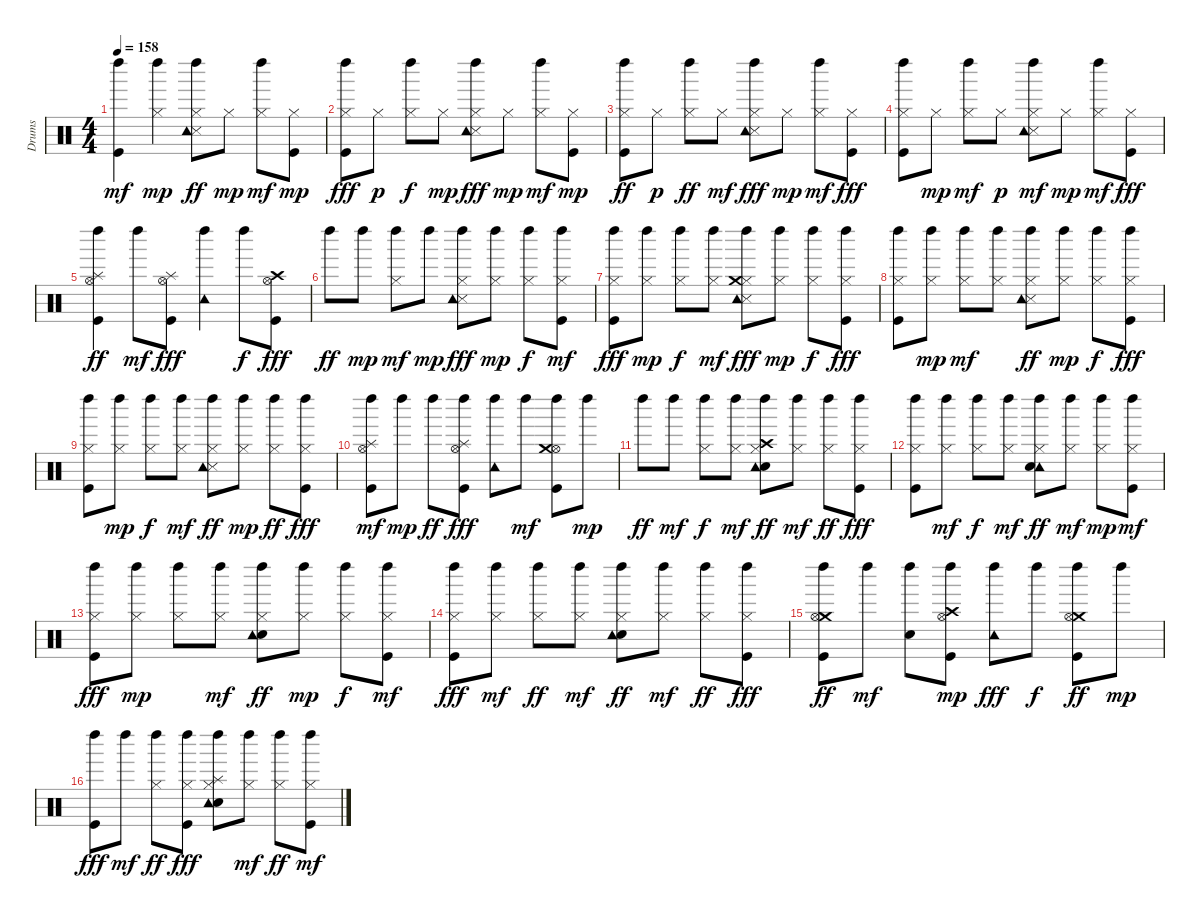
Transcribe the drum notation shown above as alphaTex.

\track ("Drums" "Drums") {instrument percussion}
\staff {score}
\articulation defaults
\ts (4 4)
\tempo 158
\clef neutral
\ks c
("Kick (hit)" "Left Maraca (hit)").4{dy mf} ("Left Maraca (hit)" "Hi-Hat (closed)").4{dy mp} ("Snare (side stick) 3" "Tambourine (hit)" "Left Maraca (hit)" "Hi-Hat (closed)").8{dy ff} "Hi-Hat (closed)".8{dy mp} ("Hi-Hat (closed)" "Left Maraca (hit)").8{dy mf} ("Kick (hit)" "Hi-Hat (closed)").8{dy mp} |
("Kick (hit)" "Hi-Hat (closed)" "Left Maraca (hit)").8{dy fff} "Hi-Hat (closed)".8{dy p} ("Hi-Hat (closed)" "Left Maraca (hit)").8{dy f} "Hi-Hat (closed)".8{dy mp} ("Snare (side stick) 3" "Left Maraca (hit)" "Hi-Hat (closed)" "Tambourine (hit)").8{dy fff} "Hi-Hat (closed)".8{dy mp} ("Hi-Hat (closed)" "Left Maraca (hit)").8{dy mf} ("Kick (hit)" "Hi-Hat (closed)").8{dy mp} |
("Kick (hit)" "Left Maraca (hit)" "Hi-Hat (closed)").8{dy ff} "Hi-Hat (closed)".8{dy p} ("Left Maraca (hit)" "Hi-Hat (closed)").8{dy ff} "Hi-Hat (closed)".8{dy mf} ("Snare (side stick) 3" "Hi-Hat (closed)" "Tambourine (hit)" "Left Maraca (hit)").8{dy fff} "Hi-Hat (closed)".8{dy mp} ("Left Maraca (hit)" "Hi-Hat (closed)").8{dy mf} ("Hi-Hat (closed)" "Kick (hit)").8{dy fff} |
("Hi-Hat (closed)" "Left Maraca (hit)" "Kick (hit)").8 "Hi-Hat (closed)".8{dy mp} ("Left Maraca (hit)" "Hi-Hat (closed)").8{dy mf} "Hi-Hat (closed)".8{dy p} ("Hi-Hat (closed)" "Snare (side stick) 3" "Tambourine (hit)" "Left Maraca (hit)").8{dy mf} "Hi-Hat (closed)".8{dy mp} ("Hi-Hat (closed)" "Left Maraca (hit)").8{dy mf} ("Hi-Hat (closed)" "Kick (hit)").8{dy fff} |
("Hi-Hat (open)" "Left Maraca (hit)" "Kick (hit)" "Splash (hit)").4{dy ff} "Left Maraca (hit)".8{dy mf} ("Kick (hit)" "Hi-Hat (open)" "Splash (hit)").8{dy fff} ("Left Maraca (hit)" "Tambourine (hit)").4 "Left Maraca (hit)".8{dy f} ("Hi-Hat (open)" "Crash high (hit)" "Kick (hit)").8{dy fff} |
"Left Maraca (hit)".8{dy ff} "Left Maraca (hit)".8{dy mp} ("Left Maraca (hit)" "Hi-Hat (closed)").8{dy mf} "Left Maraca (hit)".8{dy mp} ("Snare (side stick) 3" "Hi-Hat (closed)" "Left Maraca (hit)" "Tambourine (hit)").8{dy fff} ("Hi-Hat (closed)" "Left Maraca (hit)").8{dy mp} ("Hi-Hat (closed)" "Left Maraca (hit)").8{dy f} ("Kick (hit)" "Hi-Hat (closed)" "Left Maraca (hit)").8{dy mf} |
("Kick (hit)" "Hi-Hat (closed)" "Left Maraca (hit)").8{dy fff} ("Hi-Hat (closed)" "Left Maraca (hit)").8{dy mp} ("Hi-Hat (closed)" "Left Maraca (hit)").8{dy f} ("Hi-Hat (closed)" "Left Maraca (hit)").8{dy mf} ("Hi-Hat (closed)" "Crash medium (hit)" "Left Maraca (hit)" "Snare (side stick) 3" "Tambourine (hit)").8{dy fff} ("Hi-Hat (closed)" "Left Maraca (hit)").8{dy mp} ("Hi-Hat (closed)" "Left Maraca (hit)").8{dy f} ("Hi-Hat (closed)" "Left Maraca (hit)" "Kick (hit)").8{dy fff} |
("Hi-Hat (closed)" "Kick (hit)" "Left Maraca (hit)").8 ("Hi-Hat (closed)" "Left Maraca (hit)").8{dy mp} ("Hi-Hat (closed)" "Left Maraca (hit)").8{dy mf} ("Hi-Hat (closed)" "Left Maraca (hit)").8 ("Hi-Hat (closed)" "Snare (side stick) 3" "Tambourine (hit)" "Left Maraca (hit)").8{dy ff} ("Hi-Hat (closed)" "Left Maraca (hit)").8{dy mp} ("Hi-Hat (closed)" "Left Maraca (hit)").8{dy f} ("Hi-Hat (closed)" "Left Maraca (hit)" "Kick (hit)").8{dy fff} |
("Hi-Hat (closed)" "Left Maraca (hit)" "Kick (hit)").8 ("Hi-Hat (closed)" "Left Maraca (hit)").8{dy mp} ("Hi-Hat (closed)" "Left Maraca (hit)").8{dy f} ("Hi-Hat (closed)" "Left Maraca (hit)").8{dy mf} ("Hi-Hat (closed)" "Snare (side stick) 3" "Tambourine (hit)" "Left Maraca (hit)").8{dy ff} ("Hi-Hat (closed)" "Left Maraca (hit)").8{dy mp} ("Hi-Hat (closed)" "Left Maraca (hit)").8{dy ff} ("Hi-Hat (closed)" "Left Maraca (hit)" "Kick (hit)").8{dy fff} |
("Left Maraca (hit)" "Kick (hit)" "Hi-Hat (open)" "Splash (hit)").8{dy mf} "Left Maraca (hit)".8{dy mp} "Left Maraca (hit)".8{dy ff} ("Left Maraca (hit)" "Splash (hit)" "Kick (hit)" "Hi-Hat (open)").8{dy fff} ("Left Maraca (hit)" "Tambourine (hit)").8 "Left Maraca (hit)".8{dy mf} ("Kick (hit)" "Left Maraca (hit)" "Hi-Hat (open)" "Crash medium (hit)").8 "Left Maraca (hit)".8{dy mp} |
"Left Maraca (hit)".8{dy ff} "Left Maraca (hit)".8{dy mf} ("Hi-Hat (closed)" "Left Maraca (hit)").8{dy f} ("Hi-Hat (closed)" "Left Maraca (hit)").8{dy mf} ("Electric Snare (hit)" "Hi-Hat (closed)" "Crash high (hit)" "Tambourine (hit)" "Left Maraca (hit)").8{dy ff} ("Hi-Hat (closed)" "Left Maraca (hit)").8{dy mf} ("Hi-Hat (closed)" "Left Maraca (hit)").8{dy ff} ("Hi-Hat (closed)" "Left Maraca (hit)" "Kick (hit)").8{dy fff} |
("Hi-Hat (closed)" "Left Maraca (hit)" "Kick (hit)").8 ("Hi-Hat (closed)" "Left Maraca (hit)").8{dy mf} ("Hi-Hat (closed)" "Left Maraca (hit)").8{dy f} ("Hi-Hat (closed)" "Left Maraca (hit)").8{dy mf} ("Hi-Hat (closed)" "Tambourine (hit)" "Electric Snare (hit)" "Left Maraca (hit)").8{dy ff} ("Hi-Hat (closed)" "Left Maraca (hit)").8{dy mf} ("Hi-Hat (closed)" "Left Maraca (hit)").8{dy mp} ("Kick (hit)" "Hi-Hat (closed)" "Left Maraca (hit)").8{dy mf} |
("Hi-Hat (closed)" "Left Maraca (hit)" "Kick (hit)").8{dy fff} ("Hi-Hat (closed)" "Left Maraca (hit)").8{dy mp} ("Hi-Hat (closed)" "Left Maraca (hit)").8 ("Hi-Hat (closed)" "Left Maraca (hit)").8{dy mf} ("Electric Snare (hit)" "Hi-Hat (closed)" "Tambourine (hit)" "Left Maraca (hit)").8{dy ff} ("Hi-Hat (closed)" "Left Maraca (hit)").8{dy mp} ("Hi-Hat (closed)" "Left Maraca (hit)").8{dy f} ("Kick (hit)" "Hi-Hat (closed)" "Left Maraca (hit)").8{dy mf} |
("Hi-Hat (closed)" "Left Maraca (hit)" "Kick (hit)").8{dy fff} ("Hi-Hat (closed)" "Left Maraca (hit)").8{dy mf} ("Hi-Hat (closed)" "Left Maraca (hit)").8{dy ff} ("Hi-Hat (closed)" "Left Maraca (hit)").8{dy mf} ("Hi-Hat (closed)" "Electric Snare (hit)" "Tambourine (hit)" "Left Maraca (hit)").8{dy ff} ("Hi-Hat (closed)" "Left Maraca (hit)").8{dy mf} ("Hi-Hat (closed)" "Left Maraca (hit)").8{dy ff} ("Hi-Hat (closed)" "Left Maraca (hit)" "Kick (hit)").8{dy fff} |
("Crash medium (hit)" "Kick (hit)" "Hi-Hat (open)" "Left Maraca (hit)").8{dy ff} "Left Maraca (hit)".8{dy mf} ("Electric Snare (hit)" "Left Maraca (hit)").8 ("Left Maraca (hit)" "Kick (hit)" "Hi-Hat (open)" "Crash high (hit)").8{dy mp} ("Tambourine (hit)" "Left Maraca (hit)").8{dy fff} "Left Maraca (hit)".8{dy f} ("Crash medium (hit)" "Kick (hit)" "Hi-Hat (open)" "Left Maraca (hit)").8{dy ff} "Left Maraca (hit)".8{dy mp} |
("Kick (hit)" "Left Maraca (hit)").8{dy fff} "Left Maraca (hit)".8{dy mf} ("Left Maraca (hit)" "Hi-Hat (closed)").8{dy ff} ("Hi-Hat (closed)" "Left Maraca (hit)" "Kick (hit)").8{dy fff} ("Electric Snare (hit)" "Left Maraca (hit)" "Hi-Hat (closed)" "Splash (hit)" "Tambourine (hit)").8 ("Hi-Hat (closed)" "Left Maraca (hit)").8{dy mf} ("Hi-Hat (closed)" "Left Maraca (hit)").8{dy ff} ("Kick (hit)" "Hi-Hat (closed)" "Left Maraca (hit)").8{dy mf}
